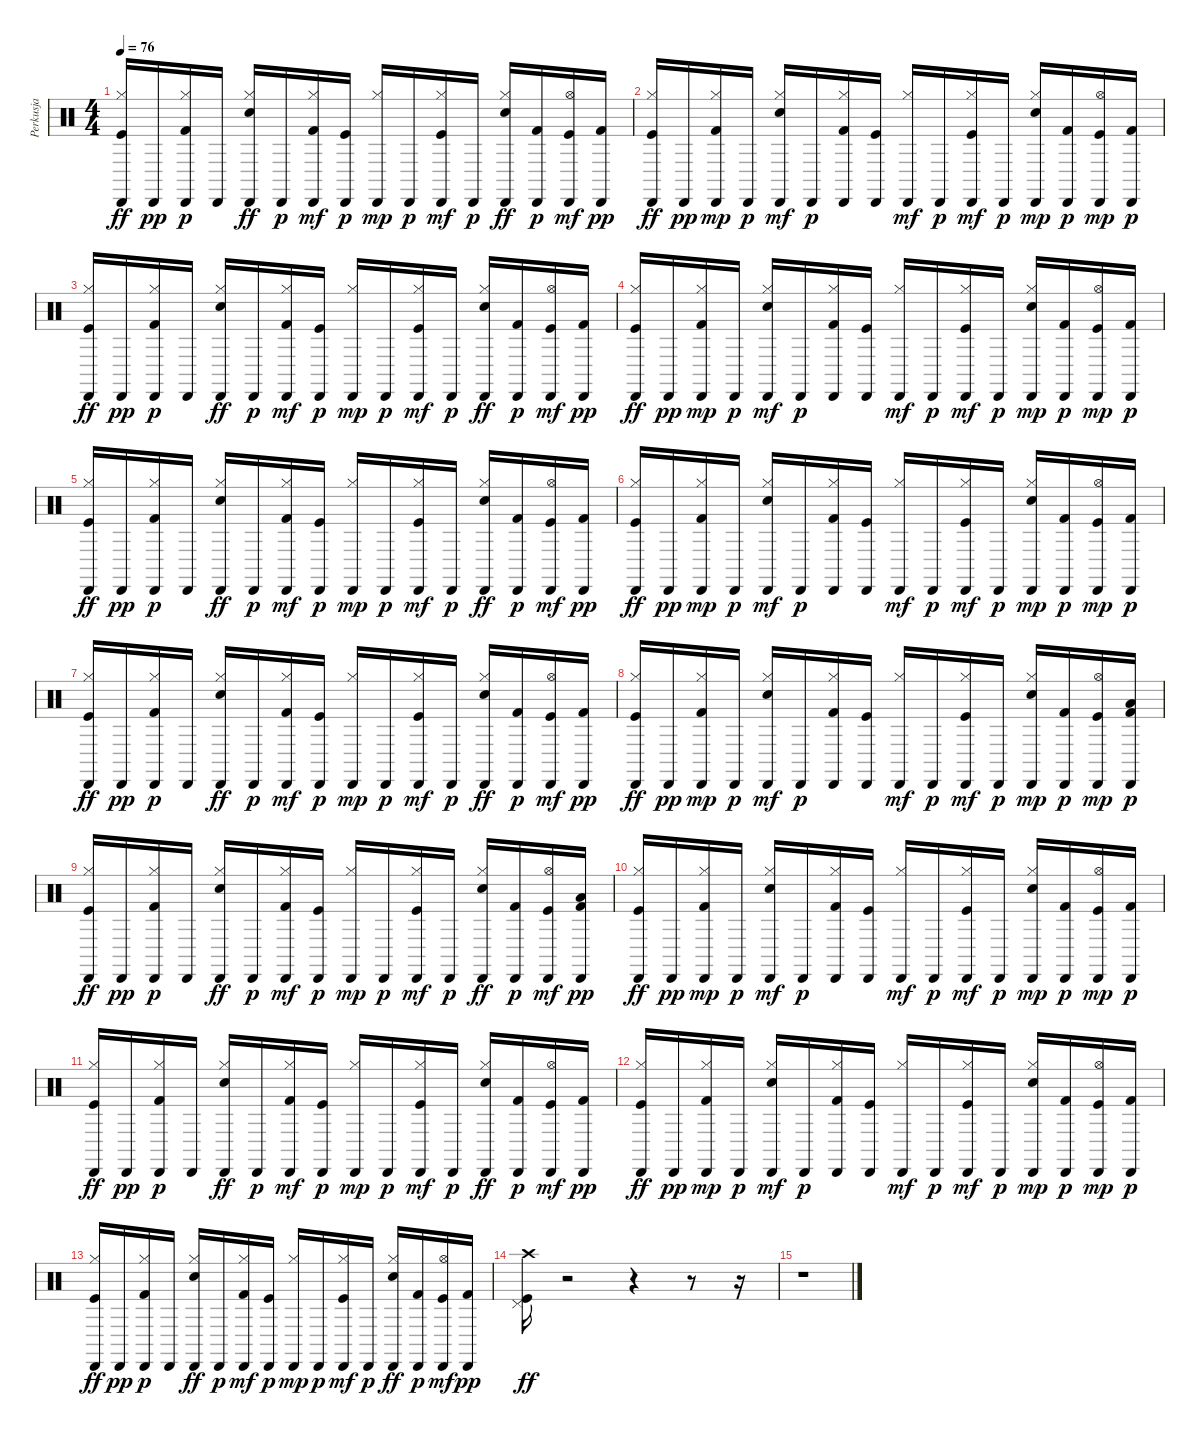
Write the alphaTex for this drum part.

\track ("Perkusja" "Perkusja") {instrument percussion}
\staff {score}
\articulation defaults
\ts (4 4)
\tempo 76
\clef neutral
\ks c
("Cabasa (hit)" "Hi-Hat (closed)" "Kick (hit)").16{dy ff} "Cabasa (hit)".16{dy pp} ("Cabasa (hit)" "Hi-Hat (closed)" "Kick (hit) 2").16{dy p} "Cabasa (hit)".16 ("Cabasa (hit)" "Hi-Hat (closed)" "Snare (hit) 2").16{dy ff} "Cabasa (hit)".16{dy p} ("Cabasa (hit)" "Kick (hit) 2" "Hi-Hat (closed)").16{dy mf} ("Cabasa (hit)" "Kick (hit)").16{dy p} ("Cabasa (hit)" "Hi-Hat (closed)").16{dy mp} "Cabasa (hit)".16{dy p} ("Cabasa (hit)" "Hi-Hat (closed)" "Kick (hit)").16{dy mf} "Cabasa (hit)".16{dy p} ("Cabasa (hit)" "Hi-Hat (closed)" "Snare (hit) 2").16{dy ff} ("Cabasa (hit)" "Kick (hit) 2").16{dy p} ("Cabasa (hit)" "Kick (hit)" "Hi-Hat (open)").16{dy mf} ("Cabasa (hit)" "Kick (hit) 2").16{dy pp} |
("Cabasa (hit)" "Hi-Hat (closed)" "Kick (hit)").16{dy ff} "Cabasa (hit)".16{dy pp} ("Cabasa (hit)" "Kick (hit) 2" "Hi-Hat (closed)").16{dy mp} "Cabasa (hit)".16{dy p} ("Cabasa (hit)" "Snare (hit) 2" "Hi-Hat (closed)").16{dy mf} "Cabasa (hit)".16{dy p} ("Cabasa (hit)" "Hi-Hat (closed)" "Kick (hit) 2").16 ("Cabasa (hit)" "Kick (hit)").16 ("Cabasa (hit)" "Hi-Hat (closed)").16{dy mf} "Cabasa (hit)".16{dy p} ("Cabasa (hit)" "Hi-Hat (closed)" "Kick (hit)").16{dy mf} "Cabasa (hit)".16{dy p} ("Cabasa (hit)" "Hi-Hat (closed)" "Snare (hit) 2").16{dy mp} ("Cabasa (hit)" "Kick (hit) 2").16{dy p} ("Kick (hit)" "Hi-Hat (open)" "Cabasa (hit)").16{dy mp} ("Cabasa (hit)" "Kick (hit) 2").16{dy p} |
("Cabasa (hit)" "Hi-Hat (closed)" "Kick (hit)").16{dy ff} "Cabasa (hit)".16{dy pp} ("Cabasa (hit)" "Hi-Hat (closed)" "Kick (hit) 2").16{dy p} "Cabasa (hit)".16 ("Cabasa (hit)" "Hi-Hat (closed)" "Snare (hit) 2").16{dy ff} "Cabasa (hit)".16{dy p} ("Cabasa (hit)" "Kick (hit) 2" "Hi-Hat (closed)").16{dy mf} ("Cabasa (hit)" "Kick (hit)").16{dy p} ("Cabasa (hit)" "Hi-Hat (closed)").16{dy mp} "Cabasa (hit)".16{dy p} ("Cabasa (hit)" "Hi-Hat (closed)" "Kick (hit)").16{dy mf} "Cabasa (hit)".16{dy p} ("Cabasa (hit)" "Hi-Hat (closed)" "Snare (hit) 2").16{dy ff} ("Cabasa (hit)" "Kick (hit) 2").16{dy p} ("Cabasa (hit)" "Kick (hit)" "Hi-Hat (open)").16{dy mf} ("Cabasa (hit)" "Kick (hit) 2").16{dy pp} |
("Cabasa (hit)" "Hi-Hat (closed)" "Kick (hit)").16{dy ff} "Cabasa (hit)".16{dy pp} ("Cabasa (hit)" "Kick (hit) 2" "Hi-Hat (closed)").16{dy mp} "Cabasa (hit)".16{dy p} ("Cabasa (hit)" "Snare (hit) 2" "Hi-Hat (closed)").16{dy mf} "Cabasa (hit)".16{dy p} ("Cabasa (hit)" "Hi-Hat (closed)" "Kick (hit) 2").16 ("Cabasa (hit)" "Kick (hit)").16 ("Cabasa (hit)" "Hi-Hat (closed)").16{dy mf} "Cabasa (hit)".16{dy p} ("Cabasa (hit)" "Hi-Hat (closed)" "Kick (hit)").16{dy mf} "Cabasa (hit)".16{dy p} ("Cabasa (hit)" "Hi-Hat (closed)" "Snare (hit) 2").16{dy mp} ("Cabasa (hit)" "Kick (hit) 2").16{dy p} ("Kick (hit)" "Hi-Hat (open)" "Cabasa (hit)").16{dy mp} ("Cabasa (hit)" "Kick (hit) 2").16{dy p} |
("Cabasa (hit)" "Hi-Hat (closed)" "Kick (hit)").16{dy ff} "Cabasa (hit)".16{dy pp} ("Cabasa (hit)" "Hi-Hat (closed)" "Kick (hit) 2").16{dy p} "Cabasa (hit)".16 ("Cabasa (hit)" "Hi-Hat (closed)" "Snare (hit) 2").16{dy ff} "Cabasa (hit)".16{dy p} ("Cabasa (hit)" "Kick (hit) 2" "Hi-Hat (closed)").16{dy mf} ("Cabasa (hit)" "Kick (hit)").16{dy p} ("Cabasa (hit)" "Hi-Hat (closed)").16{dy mp} "Cabasa (hit)".16{dy p} ("Cabasa (hit)" "Hi-Hat (closed)" "Kick (hit)").16{dy mf} "Cabasa (hit)".16{dy p} ("Cabasa (hit)" "Hi-Hat (closed)" "Snare (hit) 2").16{dy ff} ("Cabasa (hit)" "Kick (hit) 2").16{dy p} ("Cabasa (hit)" "Kick (hit)" "Hi-Hat (open)").16{dy mf} ("Cabasa (hit)" "Kick (hit) 2").16{dy pp} |
("Cabasa (hit)" "Hi-Hat (closed)" "Kick (hit)").16{dy ff} "Cabasa (hit)".16{dy pp} ("Cabasa (hit)" "Kick (hit) 2" "Hi-Hat (closed)").16{dy mp} "Cabasa (hit)".16{dy p} ("Cabasa (hit)" "Snare (hit) 2" "Hi-Hat (closed)").16{dy mf} "Cabasa (hit)".16{dy p} ("Cabasa (hit)" "Hi-Hat (closed)" "Kick (hit) 2").16 ("Cabasa (hit)" "Kick (hit)").16 ("Cabasa (hit)" "Hi-Hat (closed)").16{dy mf} "Cabasa (hit)".16{dy p} ("Cabasa (hit)" "Hi-Hat (closed)" "Kick (hit)").16{dy mf} "Cabasa (hit)".16{dy p} ("Cabasa (hit)" "Hi-Hat (closed)" "Snare (hit) 2").16{dy mp} ("Cabasa (hit)" "Kick (hit) 2").16{dy p} ("Kick (hit)" "Hi-Hat (open)" "Cabasa (hit)").16{dy mp} ("Cabasa (hit)" "Kick (hit) 2").16{dy p} |
("Cabasa (hit)" "Hi-Hat (closed)" "Kick (hit)").16{dy ff} "Cabasa (hit)".16{dy pp} ("Cabasa (hit)" "Hi-Hat (closed)" "Kick (hit) 2").16{dy p} "Cabasa (hit)".16 ("Cabasa (hit)" "Hi-Hat (closed)" "Snare (hit) 2").16{dy ff} "Cabasa (hit)".16{dy p} ("Cabasa (hit)" "Kick (hit) 2" "Hi-Hat (closed)").16{dy mf} ("Cabasa (hit)" "Kick (hit)").16{dy p} ("Cabasa (hit)" "Hi-Hat (closed)").16{dy mp} "Cabasa (hit)".16{dy p} ("Cabasa (hit)" "Hi-Hat (closed)" "Kick (hit)").16{dy mf} "Cabasa (hit)".16{dy p} ("Cabasa (hit)" "Hi-Hat (closed)" "Snare (hit) 2").16{dy ff} ("Cabasa (hit)" "Kick (hit) 2").16{dy p} ("Cabasa (hit)" "Kick (hit)" "Hi-Hat (open)").16{dy mf} ("Cabasa (hit)" "Kick (hit) 2").16{dy pp} |
("Cabasa (hit)" "Hi-Hat (closed)" "Kick (hit)").16{dy ff} "Cabasa (hit)".16{dy pp} ("Cabasa (hit)" "Kick (hit) 2" "Hi-Hat (closed)").16{dy mp} "Cabasa (hit)".16{dy p} ("Cabasa (hit)" "Snare (hit) 2" "Hi-Hat (closed)").16{dy mf} "Cabasa (hit)".16{dy p} ("Cabasa (hit)" "Hi-Hat (closed)" "Kick (hit) 2").16 ("Cabasa (hit)" "Kick (hit)").16 ("Cabasa (hit)" "Hi-Hat (closed)").16{dy mf} "Cabasa (hit)".16{dy p} ("Cabasa (hit)" "Hi-Hat (closed)" "Kick (hit)").16{dy mf} "Cabasa (hit)".16{dy p} ("Cabasa (hit)" "Hi-Hat (closed)" "Snare (hit) 2").16{dy mp} ("Cabasa (hit)" "Kick (hit) 2").16{dy p} ("Kick (hit)" "Hi-Hat (open)" "Cabasa (hit)").16{dy mp} ("Cabasa (hit)" "Kick (hit) 2" "Low Tom (hit)").16{dy p} |
("Cabasa (hit)" "Hi-Hat (closed)" "Kick (hit)").16{dy ff} "Cabasa (hit)".16{dy pp} ("Cabasa (hit)" "Hi-Hat (closed)" "Kick (hit) 2").16{dy p} "Cabasa (hit)".16 ("Cabasa (hit)" "Hi-Hat (closed)" "Snare (hit) 2").16{dy ff} "Cabasa (hit)".16{dy p} ("Cabasa (hit)" "Kick (hit) 2" "Hi-Hat (closed)").16{dy mf} ("Cabasa (hit)" "Kick (hit)").16{dy p} ("Cabasa (hit)" "Hi-Hat (closed)").16{dy mp} "Cabasa (hit)".16{dy p} ("Cabasa (hit)" "Hi-Hat (closed)" "Kick (hit)").16{dy mf} "Cabasa (hit)".16{dy p} ("Cabasa (hit)" "Hi-Hat (closed)" "Snare (hit) 2").16{dy ff} ("Cabasa (hit)" "Kick (hit) 2").16{dy p} ("Cabasa (hit)" "Kick (hit)" "Hi-Hat (open)").16{dy mf} ("Cabasa (hit)" "Kick (hit) 2" "Low Tom (hit)").16{dy pp} |
("Cabasa (hit)" "Hi-Hat (closed)" "Kick (hit)").16{dy ff} "Cabasa (hit)".16{dy pp} ("Cabasa (hit)" "Kick (hit) 2" "Hi-Hat (closed)").16{dy mp} "Cabasa (hit)".16{dy p} ("Cabasa (hit)" "Snare (hit) 2" "Hi-Hat (closed)").16{dy mf} "Cabasa (hit)".16{dy p} ("Cabasa (hit)" "Hi-Hat (closed)" "Kick (hit) 2").16 ("Cabasa (hit)" "Kick (hit)").16 ("Cabasa (hit)" "Hi-Hat (closed)").16{dy mf} "Cabasa (hit)".16{dy p} ("Cabasa (hit)" "Hi-Hat (closed)" "Kick (hit)").16{dy mf} "Cabasa (hit)".16{dy p} ("Cabasa (hit)" "Hi-Hat (closed)" "Snare (hit) 2").16{dy mp} ("Cabasa (hit)" "Kick (hit) 2").16{dy p} ("Kick (hit)" "Hi-Hat (open)" "Cabasa (hit)").16{dy mp} ("Cabasa (hit)" "Kick (hit) 2").16{dy p} |
("Cabasa (hit)" "Hi-Hat (closed)" "Kick (hit)").16{dy ff} "Cabasa (hit)".16{dy pp} ("Cabasa (hit)" "Hi-Hat (closed)" "Kick (hit) 2").16{dy p} "Cabasa (hit)".16 ("Cabasa (hit)" "Hi-Hat (closed)" "Snare (hit) 2").16{dy ff} "Cabasa (hit)".16{dy p} ("Cabasa (hit)" "Kick (hit) 2" "Hi-Hat (closed)").16{dy mf} ("Cabasa (hit)" "Kick (hit)").16{dy p} ("Cabasa (hit)" "Hi-Hat (closed)").16{dy mp} "Cabasa (hit)".16{dy p} ("Cabasa (hit)" "Hi-Hat (closed)" "Kick (hit)").16{dy mf} "Cabasa (hit)".16{dy p} ("Cabasa (hit)" "Hi-Hat (closed)" "Snare (hit) 2").16{dy ff} ("Cabasa (hit)" "Kick (hit) 2").16{dy p} ("Cabasa (hit)" "Kick (hit)" "Hi-Hat (open)").16{dy mf} ("Cabasa (hit)" "Kick (hit) 2").16{dy pp} |
("Cabasa (hit)" "Hi-Hat (closed)" "Kick (hit)").16{dy ff} "Cabasa (hit)".16{dy pp} ("Cabasa (hit)" "Kick (hit) 2" "Hi-Hat (closed)").16{dy mp} "Cabasa (hit)".16{dy p} ("Cabasa (hit)" "Snare (hit) 2" "Hi-Hat (closed)").16{dy mf} "Cabasa (hit)".16{dy p} ("Cabasa (hit)" "Hi-Hat (closed)" "Kick (hit) 2").16 ("Cabasa (hit)" "Kick (hit)").16 ("Cabasa (hit)" "Hi-Hat (closed)").16{dy mf} "Cabasa (hit)".16{dy p} ("Cabasa (hit)" "Hi-Hat (closed)" "Kick (hit)").16{dy mf} "Cabasa (hit)".16{dy p} ("Cabasa (hit)" "Hi-Hat (closed)" "Snare (hit) 2").16{dy mp} ("Cabasa (hit)" "Kick (hit) 2").16{dy p} ("Kick (hit)" "Hi-Hat (open)" "Cabasa (hit)").16{dy mp} ("Cabasa (hit)" "Kick (hit) 2").16{dy p} |
("Cabasa (hit)" "Hi-Hat (closed)" "Kick (hit)").16{dy ff} "Cabasa (hit)".16{dy pp} ("Cabasa (hit)" "Hi-Hat (closed)" "Kick (hit) 2").16{dy p} "Cabasa (hit)".16 ("Cabasa (hit)" "Hi-Hat (closed)" "Snare (hit) 2").16{dy ff} "Cabasa (hit)".16{dy p} ("Cabasa (hit)" "Kick (hit) 2" "Hi-Hat (closed)").16{dy mf} ("Cabasa (hit)" "Kick (hit)").16{dy p} ("Cabasa (hit)" "Hi-Hat (closed)").16{dy mp} "Cabasa (hit)".16{dy p} ("Cabasa (hit)" "Hi-Hat (closed)" "Kick (hit)").16{dy mf} "Cabasa (hit)".16{dy p} ("Cabasa (hit)" "Hi-Hat (closed)" "Snare (hit) 2").16{dy ff} ("Cabasa (hit)" "Kick (hit) 2").16{dy p} ("Cabasa (hit)" "Kick (hit)" "Hi-Hat (open)").16{dy mf} ("Cabasa (hit)" "Kick (hit) 2").16{dy pp} |
("Kick (hit)" "Pedal Hi-Hat (hit)" "Crash high (hit)").16{dy ff} r.2 r.4 r.8 r.16 |
r.1
